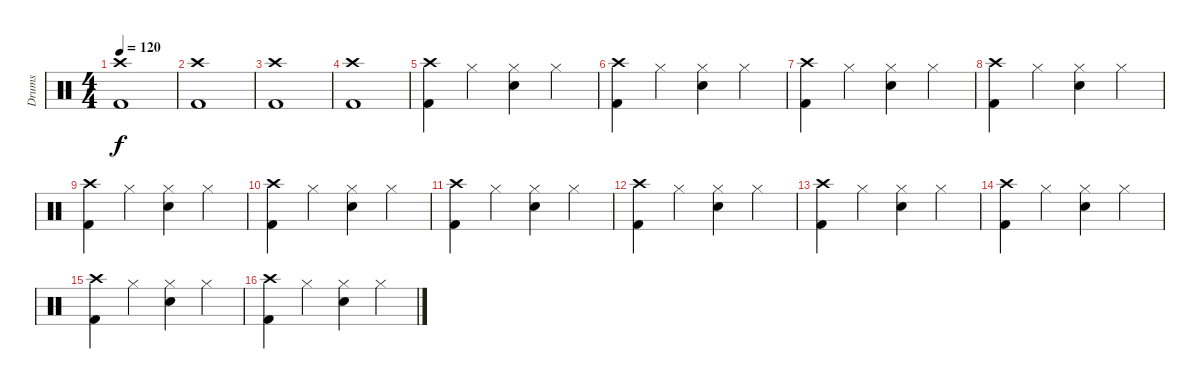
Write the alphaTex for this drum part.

\track ("Drums" "Drums") {instrument percussion}
\staff {score}
\articulation defaults
\ts (4 4)
\tempo 120
\clef neutral
\ks c
("Crash high (hit)" "Kick (hit) 2").1{dy f} |
("Crash high (hit)" "Kick (hit) 2").1 |
("Crash high (hit)" "Kick (hit) 2").1 |
("Crash high (hit)" "Kick (hit) 2").1 |
("Crash high (hit)" "Kick (hit) 2").4 "Hi-Hat (closed)".4 ("Hi-Hat (closed)" "Electric Snare (hit)").4 "Hi-Hat (closed)".4 |
("Crash high (hit)" "Kick (hit) 2").4 "Hi-Hat (closed)".4 ("Hi-Hat (closed)" "Electric Snare (hit)").4 "Hi-Hat (closed)".4 |
("Crash high (hit)" "Kick (hit) 2").4 "Hi-Hat (closed)".4 ("Hi-Hat (closed)" "Electric Snare (hit)").4 "Hi-Hat (closed)".4 |
("Crash high (hit)" "Kick (hit) 2").4 "Hi-Hat (closed)".4 ("Hi-Hat (closed)" "Electric Snare (hit)").4 "Hi-Hat (closed)".4 |
("Crash high (hit)" "Kick (hit) 2").4 "Hi-Hat (closed)".4 ("Hi-Hat (closed)" "Electric Snare (hit)").4 "Hi-Hat (closed)".4 |
("Crash high (hit)" "Kick (hit) 2").4 "Hi-Hat (closed)".4 ("Hi-Hat (closed)" "Electric Snare (hit)").4 "Hi-Hat (closed)".4 |
("Crash high (hit)" "Kick (hit) 2").4 "Hi-Hat (closed)".4 ("Hi-Hat (closed)" "Electric Snare (hit)").4 "Hi-Hat (closed)".4 |
("Crash high (hit)" "Kick (hit) 2").4 "Hi-Hat (closed)".4 ("Hi-Hat (closed)" "Electric Snare (hit)").4 "Hi-Hat (closed)".4 |
("Crash high (hit)" "Kick (hit) 2").4 "Hi-Hat (closed)".4 ("Hi-Hat (closed)" "Electric Snare (hit)").4 "Hi-Hat (closed)".4 |
("Crash high (hit)" "Kick (hit) 2").4 "Hi-Hat (closed)".4 ("Hi-Hat (closed)" "Electric Snare (hit)").4 "Hi-Hat (closed)".4 |
("Crash high (hit)" "Kick (hit) 2").4 "Hi-Hat (closed)".4 ("Hi-Hat (closed)" "Electric Snare (hit)").4 "Hi-Hat (closed)".4 |
("Crash high (hit)" "Kick (hit) 2").4 "Hi-Hat (closed)".4 ("Hi-Hat (closed)" "Electric Snare (hit)").4 "Hi-Hat (closed)".4
